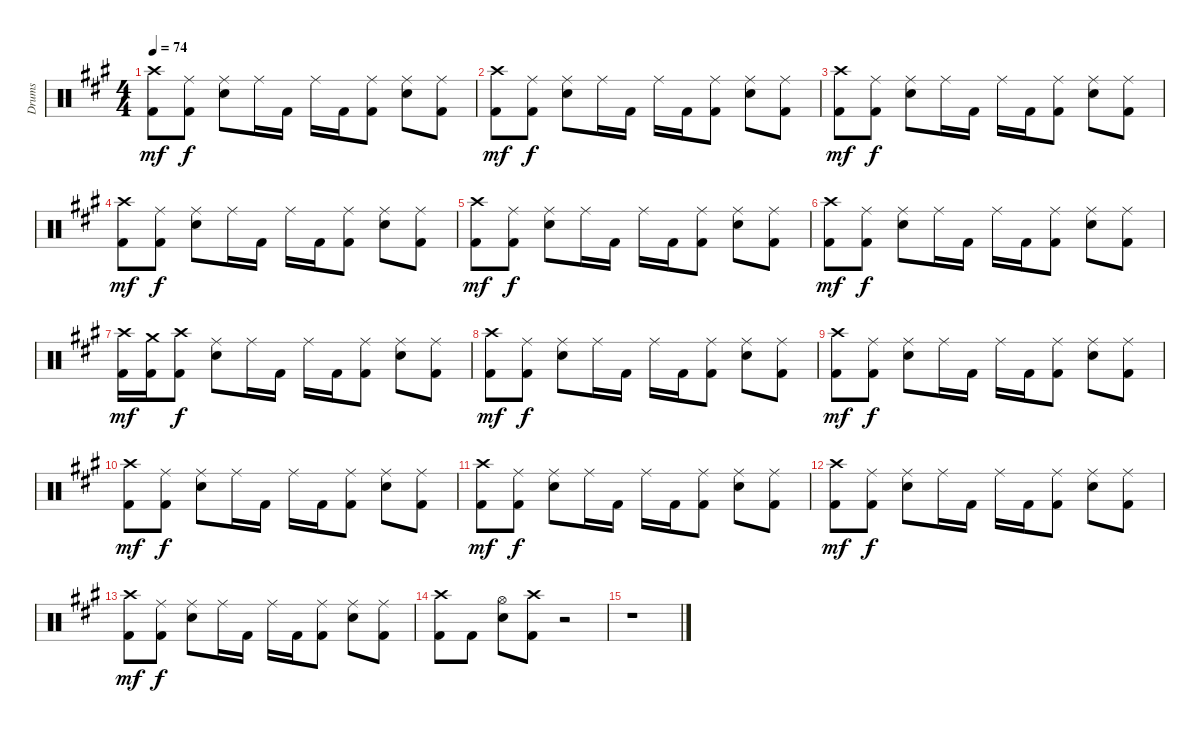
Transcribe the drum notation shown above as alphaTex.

\track ("Drums" "Drums") {instrument percussion}
\staff {score}
\articulation defaults
\ts (4 4)
\tempo 74
\clef neutral
\ks a
("Kick (hit) 2" "Crash high (hit)").8{dy mf} ("Kick (hit) 2" "Ride (middle)").8{dy f} ("Ride (middle)" "Electric Snare (hit)").8 "Ride (middle)".16 "Kick (hit) 2".16 "Ride (middle)".16 "Kick (hit) 2".16 ("Kick (hit) 2" "Ride (middle)").8 ("Electric Snare (hit)" "Ride (middle)").8 ("Ride (middle)" "Kick (hit) 2").8 |
("Kick (hit) 2" "Crash high (hit)").8{dy mf} ("Kick (hit) 2" "Ride (middle)").8{dy f} ("Ride (middle)" "Electric Snare (hit)").8 "Ride (middle)".16 "Kick (hit) 2".16 "Ride (middle)".16 "Kick (hit) 2".16 ("Kick (hit) 2" "Ride (middle)").8 ("Electric Snare (hit)" "Ride (middle)").8 ("Ride (middle)" "Kick (hit) 2").8 |
("Kick (hit) 2" "Crash high (hit)").8{dy mf} ("Kick (hit) 2" "Ride (middle)").8{dy f} ("Ride (middle)" "Electric Snare (hit)").8 "Ride (middle)".16 "Kick (hit) 2".16 "Ride (middle)".16 "Kick (hit) 2".16 ("Kick (hit) 2" "Ride (middle)").8 ("Electric Snare (hit)" "Ride (middle)").8 ("Ride (middle)" "Kick (hit) 2").8 |
("Kick (hit) 2" "Crash high (hit)").8{dy mf} ("Kick (hit) 2" "Ride (middle)").8{dy f} ("Ride (middle)" "Electric Snare (hit)").8 "Ride (middle)".16 "Kick (hit) 2".16 "Ride (middle)".16 "Kick (hit) 2".16 ("Kick (hit) 2" "Ride (middle)").8 ("Electric Snare (hit)" "Ride (middle)").8 ("Ride (middle)" "Kick (hit) 2").8 |
("Kick (hit) 2" "Crash high (hit)").8{dy mf} ("Kick (hit) 2" "Ride (middle)").8{dy f} ("Ride (middle)" "Electric Snare (hit)").8 "Ride (middle)".16 "Kick (hit) 2".16 "Ride (middle)".16 "Kick (hit) 2".16 ("Kick (hit) 2" "Ride (middle)").8 ("Electric Snare (hit)" "Ride (middle)").8 ("Ride (middle)" "Kick (hit) 2").8 |
("Kick (hit) 2" "Crash high (hit)").8{dy mf} ("Kick (hit) 2" "Ride (middle)").8{dy f} ("Ride (middle)" "Electric Snare (hit)").8 "Ride (middle)".16 "Kick (hit) 2".16 "Ride (middle)".16 "Kick (hit) 2".16 ("Kick (hit) 2" "Ride (middle)").8 ("Electric Snare (hit)" "Ride (middle)").8 ("Ride (middle)" "Kick (hit) 2").8 |
("Kick (hit) 2" "Crash high (hit)").16{dy mf} ("Kick (hit) 2" "Crash medium (hit)").16 ("Kick (hit) 2" "Crash high (hit)").8{dy f} ("Ride (middle)" "Electric Snare (hit)").8 "Ride (middle)".16 "Kick (hit) 2".16 "Ride (middle)".16 "Kick (hit) 2".16 ("Kick (hit) 2" "Ride (middle)").8 ("Electric Snare (hit)" "Ride (middle)").8 ("Ride (middle)" "Kick (hit) 2").8 |
("Kick (hit) 2" "Crash high (hit)").8{dy mf} ("Kick (hit) 2" "Ride (middle)").8{dy f} ("Ride (middle)" "Electric Snare (hit)").8 "Ride (middle)".16 "Kick (hit) 2".16 "Ride (middle)".16 "Kick (hit) 2".16 ("Kick (hit) 2" "Ride (middle)").8 ("Electric Snare (hit)" "Ride (middle)").8 ("Ride (middle)" "Kick (hit) 2").8 |
("Kick (hit) 2" "Crash high (hit)").8{dy mf} ("Kick (hit) 2" "Ride (middle)").8{dy f} ("Ride (middle)" "Electric Snare (hit)").8 "Ride (middle)".16 "Kick (hit) 2".16 "Ride (middle)".16 "Kick (hit) 2".16 ("Kick (hit) 2" "Ride (middle)").8 ("Electric Snare (hit)" "Ride (middle)").8 ("Ride (middle)" "Kick (hit) 2").8 |
("Kick (hit) 2" "Crash high (hit)").8{dy mf} ("Kick (hit) 2" "Ride (middle)").8{dy f} ("Ride (middle)" "Electric Snare (hit)").8 "Ride (middle)".16 "Kick (hit) 2".16 "Ride (middle)".16 "Kick (hit) 2".16 ("Kick (hit) 2" "Ride (middle)").8 ("Electric Snare (hit)" "Ride (middle)").8 ("Ride (middle)" "Kick (hit) 2").8 |
("Kick (hit) 2" "Crash high (hit)").8{dy mf} ("Kick (hit) 2" "Ride (middle)").8{dy f} ("Ride (middle)" "Electric Snare (hit)").8 "Ride (middle)".16 "Kick (hit) 2".16 "Ride (middle)".16 "Kick (hit) 2".16 ("Kick (hit) 2" "Ride (middle)").8 ("Electric Snare (hit)" "Ride (middle)").8 ("Ride (middle)" "Kick (hit) 2").8 |
("Kick (hit) 2" "Crash high (hit)").8{dy mf} ("Kick (hit) 2" "Ride (middle)").8{dy f} ("Ride (middle)" "Electric Snare (hit)").8 "Ride (middle)".16 "Kick (hit) 2".16 "Ride (middle)".16 "Kick (hit) 2".16 ("Kick (hit) 2" "Ride (middle)").8 ("Electric Snare (hit)" "Ride (middle)").8 ("Ride (middle)" "Kick (hit) 2").8 |
("Kick (hit) 2" "Crash high (hit)").8{dy mf} ("Kick (hit) 2" "Ride (middle)").8{dy f} ("Ride (middle)" "Electric Snare (hit)").8 "Ride (middle)".16 "Kick (hit) 2".16 "Ride (middle)".16 "Kick (hit) 2".16 ("Kick (hit) 2" "Ride (middle)").8 ("Electric Snare (hit)" "Ride (middle)").8 ("Ride (middle)" "Kick (hit) 2").8 |
("Kick (hit) 2" "Crash high (hit)").8 "Kick (hit) 2".8 ("Electric Snare (hit)" "Hi-Hat (open)").8 ("Crash high (hit)" "Kick (hit) 2").8 r.2 |
r.1
